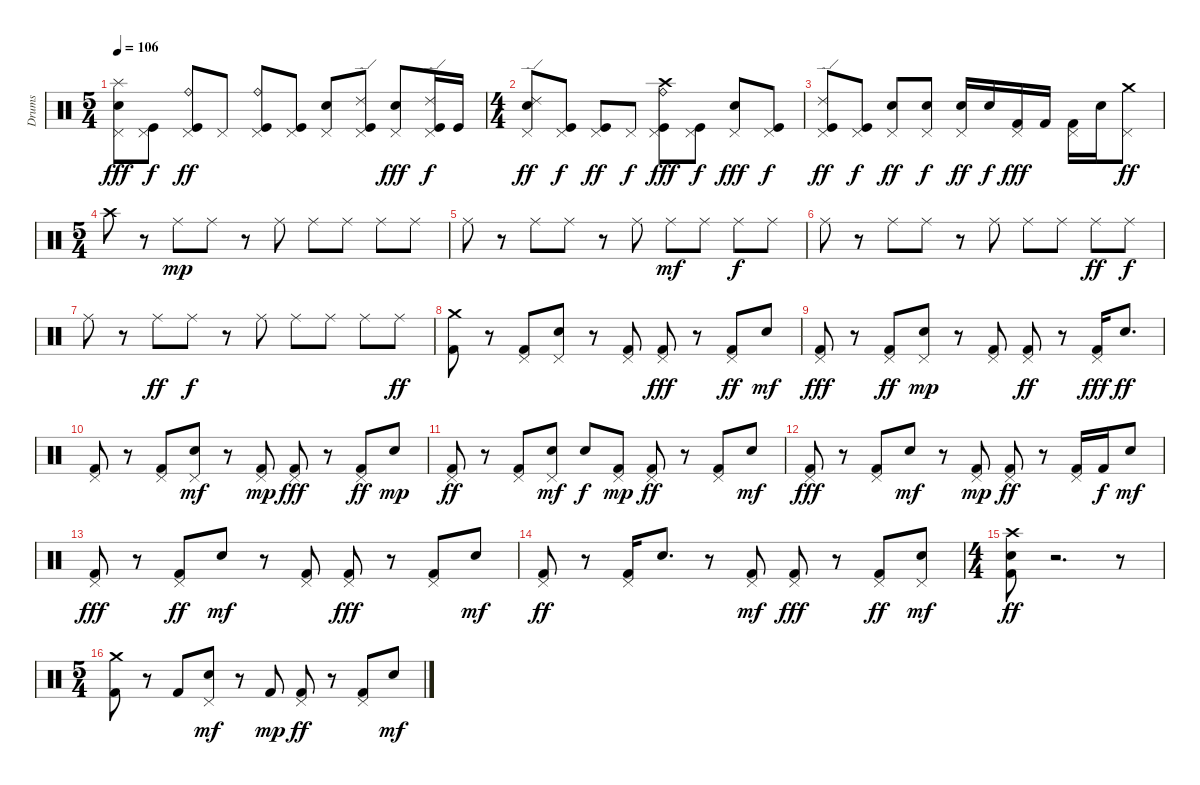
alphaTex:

\track ("Drums" "Drums") {instrument percussion}
\staff {score}
\articulation defaults
\ts (5 4)
\tempo 106
\clef neutral
\ks c
("Pedal Hi-Hat (hit)" "Electric Snare (hit)" "Splash (hit)").8{dy fff} ("Pedal Hi-Hat (hit)" "Kick (hit)").8{dy f} ("Pedal Hi-Hat (hit)" "Ride (bell)" "Kick (hit)").8{dy ff} "Pedal Hi-Hat (hit)".8 ("Pedal Hi-Hat (hit)" "Ride (bell)" "Kick (hit)").8 ("Pedal Hi-Hat (hit)" "Kick (hit)").8 ("Pedal Hi-Hat (hit)" "Electric Snare (hit)").8 ("Pedal Hi-Hat (hit)" "Ride (edge) 2" "Kick (hit)").8 ("Pedal Hi-Hat (hit)" "Electric Snare (hit)").8{dy fff} ("Pedal Hi-Hat (hit)" "Kick (hit)" "Ride (edge) 2").16{dy f} "Kick (hit)".16 |
\ts (4 4)
("Pedal Hi-Hat (hit)" "Electric Snare (hit)" "Ride (edge) 2").8{dy ff} ("Pedal Hi-Hat (hit)" "Kick (hit)").8{dy f} ("Pedal Hi-Hat (hit)" "Kick (hit)").8{dy ff} "Pedal Hi-Hat (hit)".8{dy f} ("Pedal Hi-Hat (hit)" "Ride (bell)" "Crash high (hit)" "Kick (hit)").8{dy fff} ("Pedal Hi-Hat (hit)" "Kick (hit)").8{dy f} ("Pedal Hi-Hat (hit)" "Electric Snare (hit)").8{dy fff} ("Pedal Hi-Hat (hit)" "Kick (hit)").8{dy f} |
("Kick (hit)" "Pedal Hi-Hat (hit)" "Ride (edge) 2").8{dy ff} ("Pedal Hi-Hat (hit)" "Kick (hit)").8{dy f} ("Electric Snare (hit)" "Pedal Hi-Hat (hit)").8{dy ff} ("Electric Snare (hit)" "Pedal Hi-Hat (hit)").8{dy f} ("Snare (hit) 2" "Pedal Hi-Hat (hit)").16{dy ff} "Snare (hit) 2".16{dy f} ("Kick (hit) 2" "Pedal Hi-Hat (hit)").16{dy fff} "Kick (hit) 2".16 ("Kick (hit) 2" "Pedal Hi-Hat (hit)").16 "Electric Snare (hit)".16 ("Crash medium (hit)" "Pedal Hi-Hat (hit)").8{dy ff} |
\ts (5 4)
"Crash high (hit)".8 r.8 "Ride (middle)".8{dy mp} "Ride (middle)".8 r.8 "Ride (middle)".8 "Ride (middle)".8 "Ride (middle)".8 "Ride (middle)".8 "Ride (middle)".8 |
"Ride (middle)".8 r.8 "Ride (middle)".8 "Ride (middle)".8 r.8 "Ride (middle)".8 "Ride (middle)".8{dy mf} "Ride (middle)".8 "Ride (middle)".8{dy f} "Ride (middle)".8 |
"Ride (middle)".8 r.8 "Ride (middle)".8 "Ride (middle)".8 r.8 "Ride (middle)".8 "Ride (middle)".8 "Ride (middle)".8 "Ride (middle)".8{dy ff} "Ride (middle)".8{dy f} |
"Ride (middle)".8 r.8 "Ride (middle)".8{dy ff} "Ride (middle)".8{dy f} r.8 "Ride (middle)".8 "Ride (middle)".8 "Ride (middle)".8 "Ride (middle)".8 "Ride (middle)".8{dy ff} |
("Kick (hit) 2" "Crash medium (hit)").8 r.8 ("Pedal Hi-Hat (hit)" "Kick (hit) 2").8 ("Pedal Hi-Hat (hit)" "Electric Snare (hit)").8 r.8 ("Pedal Hi-Hat (hit)" "Kick (hit) 2").8 ("Pedal Hi-Hat (hit)" "Kick (hit) 2").8{dy fff} r.8 ("Pedal Hi-Hat (hit)" "Kick (hit) 2").8{dy ff} "Electric Snare (hit)".8{dy mf} |
("Pedal Hi-Hat (hit)" "Kick (hit) 2").8{dy fff} r.8 ("Pedal Hi-Hat (hit)" "Kick (hit) 2").8{dy ff} ("Pedal Hi-Hat (hit)" "Electric Snare (hit)").8{dy mp} r.8 ("Pedal Hi-Hat (hit)" "Kick (hit) 2").8 ("Pedal Hi-Hat (hit)" "Kick (hit) 2").8{dy ff} r.8 ("Pedal Hi-Hat (hit)" "Kick (hit) 2").16{dy fff} "Electric Snare (hit)".8{d dy ff} |
("Pedal Hi-Hat (hit)" "Kick (hit) 2").8 r.8 ("Pedal Hi-Hat (hit)" "Kick (hit) 2").8 ("Pedal Hi-Hat (hit)" "Electric Snare (hit)").8{dy mf} r.8 ("Pedal Hi-Hat (hit)" "Kick (hit) 2").8{dy mp} ("Pedal Hi-Hat (hit)" "Kick (hit) 2").8{dy fff} r.8 ("Pedal Hi-Hat (hit)" "Kick (hit) 2").8{dy ff} "Electric Snare (hit)".8{dy mp} |
("Pedal Hi-Hat (hit)" "Kick (hit) 2").8{dy ff} r.8 ("Pedal Hi-Hat (hit)" "Kick (hit) 2").8 ("Pedal Hi-Hat (hit)" "Electric Snare (hit)").8{dy mf} "Electric Snare (hit)".8{dy f} ("Pedal Hi-Hat (hit)" "Kick (hit) 2").8{dy mp} ("Pedal Hi-Hat (hit)" "Kick (hit) 2").8{dy ff} r.8 ("Pedal Hi-Hat (hit)" "Kick (hit) 2").8 "Electric Snare (hit)".8{dy mf} |
("Pedal Hi-Hat (hit)" "Kick (hit) 2").8{dy fff} r.8 ("Pedal Hi-Hat (hit)" "Kick (hit) 2").8 "Electric Snare (hit)".8{dy mf} r.8 ("Pedal Hi-Hat (hit)" "Kick (hit) 2").8{dy mp} ("Pedal Hi-Hat (hit)" "Kick (hit) 2").8{dy ff} r.8 ("Pedal Hi-Hat (hit)" "Kick (hit) 2").16 "Kick (hit) 2".16{dy f} "Electric Snare (hit)".8{dy mf} |
("Pedal Hi-Hat (hit)" "Kick (hit) 2").8{dy fff} r.8 ("Pedal Hi-Hat (hit)" "Kick (hit) 2").8{dy ff} "Electric Snare (hit)".8{dy mf} r.8 ("Pedal Hi-Hat (hit)" "Kick (hit) 2").8 ("Pedal Hi-Hat (hit)" "Kick (hit) 2").8{dy fff} r.8 ("Pedal Hi-Hat (hit)" "Kick (hit) 2").8 "Electric Snare (hit)".8{dy mf} |
("Pedal Hi-Hat (hit)" "Kick (hit) 2").8{dy ff} r.8 ("Pedal Hi-Hat (hit)" "Kick (hit) 2").16 "Electric Snare (hit)".8{d} r.8 ("Pedal Hi-Hat (hit)" "Kick (hit) 2").8{dy mf} ("Pedal Hi-Hat (hit)" "Kick (hit) 2").8{dy fff} r.8 ("Pedal Hi-Hat (hit)" "Kick (hit) 2").8{dy ff} ("Pedal Hi-Hat (hit)" "Electric Snare (hit)").8{dy mf} |
\ts (4 4)
("Kick (hit) 2" "Crash high (hit)" "Snare (hit) 2").8{dy ff} r.2{d} r.8 |
\ts (5 4)
("Kick (hit) 2" "Crash medium (hit)").8 r.8 "Kick (hit) 2".8 ("Pedal Hi-Hat (hit)" "Electric Snare (hit)").8{dy mf} r.8 "Kick (hit) 2".8{dy mp} ("Pedal Hi-Hat (hit)" "Kick (hit) 2").8{dy ff} r.8 ("Pedal Hi-Hat (hit)" "Kick (hit) 2").8 "Electric Snare (hit)".8{dy mf}
